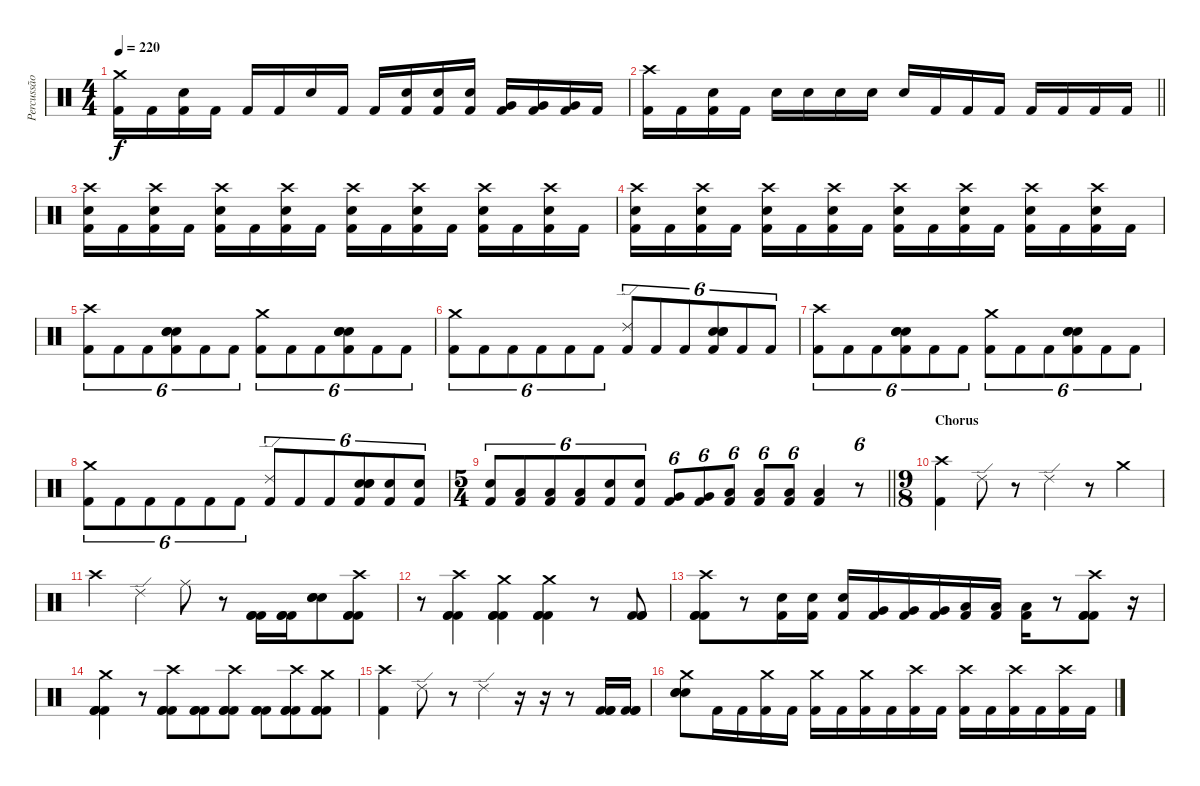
\track ("Percussão" "Percussão") {instrument percussion}
\staff {score}
\articulation defaults
\ts (4 4)
\tempo 220
\clef neutral
\ks c
("Crash medium (hit)" "Kick (hit) 2").16{dy f} "Kick (hit) 2".16 ("Electric Snare (hit)" "Kick (hit) 2").16 "Kick (hit) 2".16 "Kick (hit) 2".16 "Kick (hit) 2".16 "Electric Snare (hit)".16 "Kick (hit) 2".16 "Kick (hit) 2".16 ("Electric Snare (hit)" "Kick (hit) 2").16 ("Electric Snare (hit)" "Kick (hit) 2").16 ("Electric Snare (hit)" "Kick (hit) 2").16 ("Very Low Tom (hit)" "Kick (hit) 2").16 ("Very Low Tom (hit)" "Kick (hit) 2").16 ("Very Low Tom (hit)" "Kick (hit) 2").16 "Kick (hit) 2".16 |
\barLineRight lightlight
("Crash high (hit)" "Kick (hit) 2").16 "Kick (hit) 2".16 ("Electric Snare (hit)" "Kick (hit) 2").16 "Kick (hit) 2".16 "Electric Snare (hit)".16 "Electric Snare (hit)".16 "Electric Snare (hit)".16 "Electric Snare (hit)".16 "Electric Snare (hit)".16 "Kick (hit) 2".16 "Kick (hit) 2".16 "Kick (hit) 2".16 "Kick (hit) 2".16 "Kick (hit) 2".16 "Kick (hit) 2".16 "Kick (hit) 2".16 |
("Crash high (hit)" "Electric Snare (hit)" "Kick (hit) 2").16 "Kick (hit) 2".16 ("Crash high (hit)" "Electric Snare (hit)" "Kick (hit) 2").16 "Kick (hit) 2".16 ("Crash high (hit)" "Electric Snare (hit)" "Kick (hit) 2").16 "Kick (hit) 2".16 ("Crash high (hit)" "Electric Snare (hit)" "Kick (hit) 2").16 "Kick (hit) 2".16 ("Crash high (hit)" "Electric Snare (hit)" "Kick (hit) 2").16 "Kick (hit) 2".16 ("Crash high (hit)" "Electric Snare (hit)" "Kick (hit) 2").16 "Kick (hit) 2".16 ("Crash high (hit)" "Electric Snare (hit)" "Kick (hit) 2").16 "Kick (hit) 2".16 ("Crash high (hit)" "Electric Snare (hit)" "Kick (hit) 2").16 "Kick (hit) 2".16 |
("Crash high (hit)" "Electric Snare (hit)" "Kick (hit) 2").16 "Kick (hit) 2".16 ("Crash high (hit)" "Electric Snare (hit)" "Kick (hit) 2").16 "Kick (hit) 2".16 ("Crash high (hit)" "Electric Snare (hit)" "Kick (hit) 2").16 "Kick (hit) 2".16 ("Crash high (hit)" "Electric Snare (hit)" "Kick (hit) 2").16 "Kick (hit) 2".16 ("Crash high (hit)" "Electric Snare (hit)" "Kick (hit) 2").16 "Kick (hit) 2".16 ("Crash high (hit)" "Electric Snare (hit)" "Kick (hit) 2").16 "Kick (hit) 2".16 ("Crash high (hit)" "Electric Snare (hit)" "Kick (hit) 2").16 "Kick (hit) 2".16 ("Crash high (hit)" "Electric Snare (hit)" "Kick (hit) 2").16 "Kick (hit) 2".16 |
("Crash high (hit)" "Kick (hit) 2").8{tu (6 4)} "Kick (hit) 2".8{tu (6 4)} "Kick (hit) 2".8{tu (6 4)} ("Electric Snare (hit)" "Electric Snare (hit)" "Electric Snare (hit)" "Kick (hit) 2").8{tu (6 4)} "Kick (hit) 2".8{tu (6 4)} "Kick (hit) 2".8{tu (6 4)} ("Crash medium (hit)" "Kick (hit) 2").8{tu (6 4)} "Kick (hit) 2".8{tu (6 4)} "Kick (hit) 2".8{tu (6 4)} ("Electric Snare (hit)" "Electric Snare (hit)" "Electric Snare (hit)" "Kick (hit) 2").8{tu (6 4)} "Kick (hit) 2".8{tu (6 4)} "Kick (hit) 2".8{tu (6 4)} |
("Crash medium (hit)" "Kick (hit) 2").8{tu (6 4)} "Kick (hit) 2".8{tu (6 4)} "Kick (hit) 2".8{tu (6 4)} "Kick (hit) 2".8{tu (6 4)} "Kick (hit) 2".8{tu (6 4)} "Kick (hit) 2".8{tu (6 4)} ("Ride (edge) 2" "Kick (hit) 2").8{tu (6 4)} "Kick (hit) 2".8{tu (6 4)} "Kick (hit) 2".8{tu (6 4)} ("Electric Snare (hit)" "Electric Snare (hit)" "Electric Snare (hit)" "Kick (hit) 2").8{tu (6 4)} "Kick (hit) 2".8{tu (6 4)} "Kick (hit) 2".8{tu (6 4)} |
("Crash high (hit)" "Kick (hit) 2").8{tu (6 4)} "Kick (hit) 2".8{tu (6 4)} "Kick (hit) 2".8{tu (6 4)} ("Electric Snare (hit)" "Electric Snare (hit)" "Electric Snare (hit)" "Kick (hit) 2").8{tu (6 4)} "Kick (hit) 2".8{tu (6 4)} "Kick (hit) 2".8{tu (6 4)} ("Crash medium (hit)" "Kick (hit) 2").8{tu (6 4)} "Kick (hit) 2".8{tu (6 4)} "Kick (hit) 2".8{tu (6 4)} ("Electric Snare (hit)" "Electric Snare (hit)" "Electric Snare (hit)" "Kick (hit) 2").8{tu (6 4)} "Kick (hit) 2".8{tu (6 4)} "Kick (hit) 2".8{tu (6 4)} |
("Crash medium (hit)" "Kick (hit) 2").8{tu (6 4)} "Kick (hit) 2".8{tu (6 4)} "Kick (hit) 2".8{tu (6 4)} "Kick (hit) 2".8{tu (6 4)} "Kick (hit) 2".8{tu (6 4)} "Kick (hit) 2".8{tu (6 4)} ("Ride (edge) 2" "Kick (hit) 2").8{tu (6 4)} "Kick (hit) 2".8{tu (6 4)} "Kick (hit) 2".8{tu (6 4)} ("Electric Snare (hit)" "Electric Snare (hit)" "Electric Snare (hit)" "Kick (hit) 2").8{tu (6 4)} ("Electric Snare (hit)" "Kick (hit) 2").8{tu (6 4)} ("Electric Snare (hit)" "Kick (hit) 2").8{tu (6 4)} |
\ts (5 4)
\barLineRight lightlight
("Electric Snare (hit)" "Kick (hit) 2").8{tu (6 4)} ("Low Tom (hit)" "Kick (hit) 2").8{tu (6 4)} ("Low Tom (hit)" "Kick (hit) 2").8{tu (6 4)} ("Low Tom (hit)" "Kick (hit) 2").8{tu (6 4)} ("Electric Snare (hit)" "Kick (hit) 2").8{tu (6 4)} ("Electric Snare (hit)" "Kick (hit) 2").8{tu (6 4)} ("Very Low Tom (hit)" "Kick (hit) 2").8{tu (6 4)} ("Very Low Tom (hit)" "Kick (hit) 2").8{tu (6 4)} ("Low Tom (hit)" "Kick (hit) 2").8{tu (6 4)} ("Low Tom (hit)" "Kick (hit) 2").8{tu (6 4)} ("Low Tom (hit)" "Kick (hit) 2").8{tu (6 4)} ("Low Tom (hit)" "Kick (hit) 2").4 r.8{tu (6 4)} |
\ts (9 8)
\section ("" "Chorus")
("Crash high (hit)" "Kick (hit) 2").4 "Ride (edge) 2".8 r.8 "Ride (edge) 2".4 r.8 "Crash medium (hit)".4 |
"Crash high (hit)".4 "Ride (edge) 2".4 "Ride (middle)".8 r.8 ("Kick (hit) 2" "Kick (hit) 2" "Kick (hit) 2").16 ("Kick (hit) 2" "Kick (hit) 2" "Kick (hit) 2").16 ("Electric Snare (hit)" "Electric Snare (hit)" "Electric Snare (hit)").8 ("Crash high (hit)" "Kick (hit) 2" "Kick (hit) 2" "Kick (hit) 2").8 |
r.8 ("Crash high (hit)" "Kick (hit) 2" "Kick (hit) 2" "Kick (hit) 2").4 ("Crash medium (hit)" "Kick (hit) 2" "Kick (hit) 2" "Kick (hit) 2").4 ("Crash medium (hit)" "Kick (hit) 2" "Kick (hit) 2" "Kick (hit) 2").4 r.8 ("Kick (hit) 2" "Kick (hit) 2" "Kick (hit) 2").8 |
("Crash high (hit)" "Kick (hit) 2" "Kick (hit) 2" "Kick (hit) 2").8 r.8 ("Electric Snare (hit)" "Kick (hit) 2").16 ("Electric Snare (hit)" "Kick (hit) 2").16 ("Electric Snare (hit)" "Kick (hit) 2").16 ("Very Low Tom (hit)" "Kick (hit) 2").16 ("Very Low Tom (hit)" "Kick (hit) 2").16 ("Very Low Tom (hit)" "Kick (hit) 2").16 ("Low Tom (hit)" "Kick (hit) 2").16 ("Low Tom (hit)" "Kick (hit) 2").16 ("Low Tom (hit)" "Kick (hit) 2").16 r.8 ("Crash high (hit)" "Kick (hit) 2" "Kick (hit) 2" "Kick (hit) 2").8 r.16 |
("Crash medium (hit)" "Kick (hit) 2" "Kick (hit) 2" "Kick (hit) 2").4 r.8 ("Crash high (hit)" "Kick (hit) 2" "Kick (hit) 2" "Kick (hit) 2").8 ("Kick (hit) 2" "Kick (hit) 2" "Kick (hit) 2").8 ("Crash high (hit)" "Kick (hit) 2" "Kick (hit) 2" "Kick (hit) 2").8 ("Kick (hit) 2" "Kick (hit) 2" "Kick (hit) 2").8 ("Crash high (hit)" "Kick (hit) 2" "Kick (hit) 2" "Kick (hit) 2").8 ("Crash medium (hit)" "Kick (hit) 2" "Kick (hit) 2" "Kick (hit) 2").8 |
("Crash high (hit)" "Kick (hit) 2").4 "Ride (edge) 2".8 r.8 "Ride (edge) 2".4 r.16 r.16 r.8 ("Kick (hit) 2" "Kick (hit) 2" "Kick (hit) 2").16 ("Kick (hit) 2" "Kick (hit) 2" "Kick (hit) 2").16 |
("Crash medium (hit)" "Electric Snare (hit)" "Electric Snare (hit)" "Electric Snare (hit)").8 "Kick (hit) 2".16 "Kick (hit) 2".16 ("Crash medium (hit)" "Kick (hit) 2").16 "Kick (hit) 2".16 ("Crash medium (hit)" "Kick (hit) 2").16 "Kick (hit) 2".16 ("Crash medium (hit)" "Kick (hit) 2").16 "Kick (hit) 2".16 ("Crash high (hit)" "Kick (hit) 2").16 "Kick (hit) 2".16 ("Crash high (hit)" "Kick (hit) 2").16 "Kick (hit) 2".16 ("Crash high (hit)" "Kick (hit) 2").16 "Kick (hit) 2".16 ("Crash high (hit)" "Kick (hit) 2").16 "Kick (hit) 2".16
